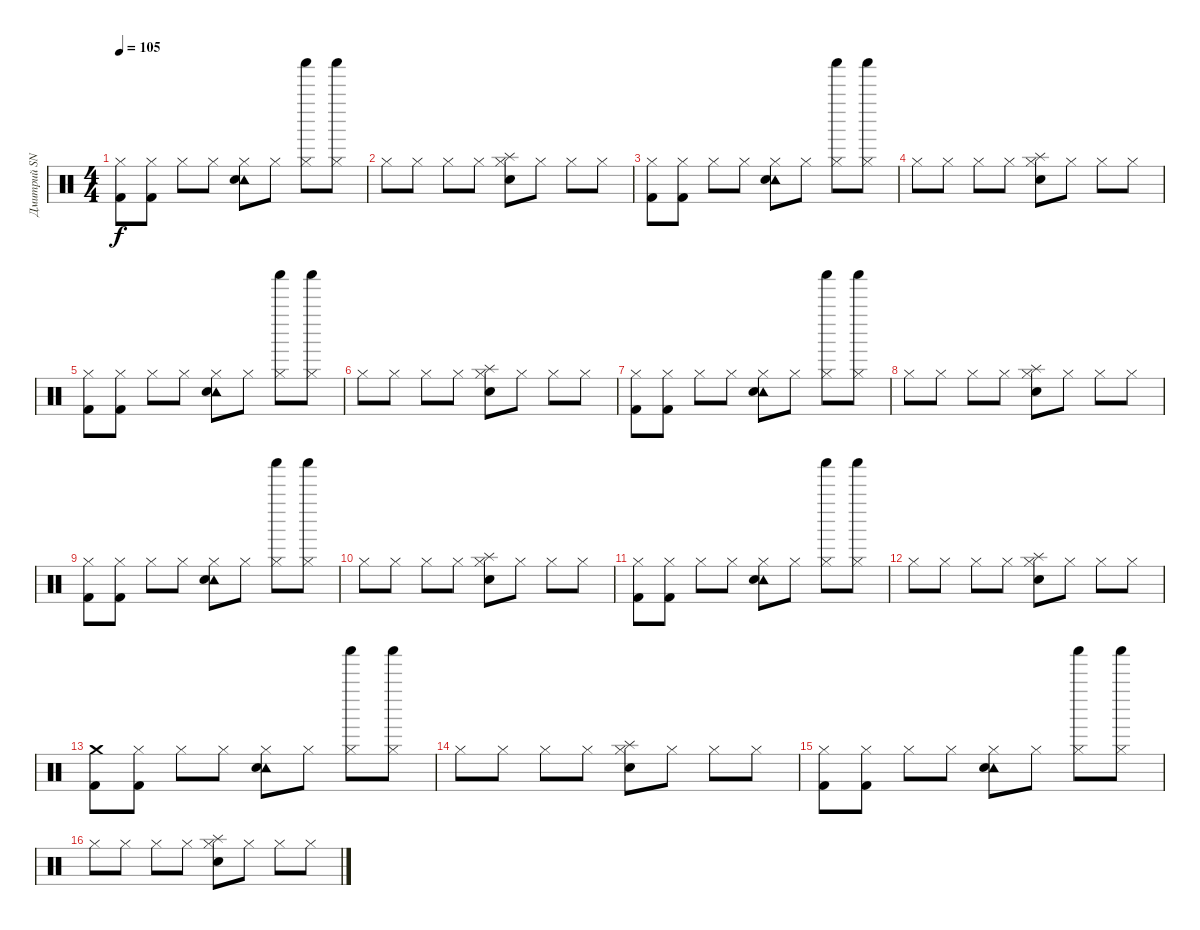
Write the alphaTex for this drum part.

\track ("Дмитрий SNAKE Хакимов" "Дмитрий SN") {instrument percussion}
\staff {score}
\articulation defaults
\ts (4 4)
\tempo 105
\clef neutral
\ks c
("Hi-Hat (closed)" "Kick (hit) 2").8{dy f} ("Hi-Hat (closed)" "Kick (hit) 2").8 "Hi-Hat (closed)".8 "Hi-Hat (closed)".8 ("Hi-Hat (closed)" "Tambourine (hit)" "Metronome (bell)").8 "Hi-Hat (closed)".8 ("Hi-Hat (closed)" "Shaker (hit)").8 ("Hi-Hat (closed)" "Shaker (hit)").8 |
"Hi-Hat (closed)".8 "Hi-Hat (closed)".8 "Hi-Hat (closed)".8 "Hi-Hat (closed)".8 ("Hi-Hat (closed)" "Splash (hit)" "Metronome (bell)").8 "Hi-Hat (closed)".8 "Hi-Hat (closed)".8 "Hi-Hat (closed)".8 |
("Hi-Hat (closed)" "Kick (hit) 2").8 ("Hi-Hat (closed)" "Kick (hit) 2").8 "Hi-Hat (closed)".8 "Hi-Hat (closed)".8 ("Hi-Hat (closed)" "Tambourine (hit)" "Metronome (bell)").8 "Hi-Hat (closed)".8 ("Hi-Hat (closed)" "Shaker (hit)").8 ("Hi-Hat (closed)" "Shaker (hit)").8 |
"Hi-Hat (closed)".8 "Hi-Hat (closed)".8 "Hi-Hat (closed)".8 "Hi-Hat (closed)".8 ("Hi-Hat (closed)" "Splash (hit)" "Metronome (bell)").8 "Hi-Hat (closed)".8 "Hi-Hat (closed)".8 "Hi-Hat (closed)".8 |
("Hi-Hat (closed)" "Kick (hit) 2").8 ("Hi-Hat (closed)" "Kick (hit) 2").8 "Hi-Hat (closed)".8 "Hi-Hat (closed)".8 ("Hi-Hat (closed)" "Tambourine (hit)" "Metronome (bell)").8 "Hi-Hat (closed)".8 ("Hi-Hat (closed)" "Shaker (hit)").8 ("Hi-Hat (closed)" "Shaker (hit)").8 |
"Hi-Hat (closed)".8 "Hi-Hat (closed)".8 "Hi-Hat (closed)".8 "Hi-Hat (closed)".8 ("Hi-Hat (closed)" "Splash (hit)" "Metronome (bell)").8 "Hi-Hat (closed)".8 "Hi-Hat (closed)".8 "Hi-Hat (closed)".8 |
("Hi-Hat (closed)" "Kick (hit) 2").8 ("Hi-Hat (closed)" "Kick (hit) 2").8 "Hi-Hat (closed)".8 "Hi-Hat (closed)".8 ("Hi-Hat (closed)" "Tambourine (hit)" "Metronome (bell)").8 "Hi-Hat (closed)".8 ("Hi-Hat (closed)" "Shaker (hit)").8 ("Hi-Hat (closed)" "Shaker (hit)").8 |
"Hi-Hat (closed)".8 "Hi-Hat (closed)".8 "Hi-Hat (closed)".8 "Hi-Hat (closed)".8 ("Hi-Hat (closed)" "Splash (hit)" "Metronome (bell)").8 "Hi-Hat (closed)".8 "Hi-Hat (closed)".8 "Hi-Hat (closed)".8 |
("Hi-Hat (closed)" "Kick (hit) 2").8 ("Hi-Hat (closed)" "Kick (hit) 2").8 "Hi-Hat (closed)".8 "Hi-Hat (closed)".8 ("Hi-Hat (closed)" "Tambourine (hit)" "Metronome (bell)").8 "Hi-Hat (closed)".8 ("Hi-Hat (closed)" "Shaker (hit)").8 ("Hi-Hat (closed)" "Shaker (hit)").8 |
"Hi-Hat (closed)".8 "Hi-Hat (closed)".8 "Hi-Hat (closed)".8 "Hi-Hat (closed)".8 ("Hi-Hat (closed)" "Splash (hit)" "Metronome (bell)").8 "Hi-Hat (closed)".8 "Hi-Hat (closed)".8 "Hi-Hat (closed)".8 |
("Hi-Hat (closed)" "Kick (hit) 2").8 ("Hi-Hat (closed)" "Kick (hit) 2").8 "Hi-Hat (closed)".8 "Hi-Hat (closed)".8 ("Hi-Hat (closed)" "Tambourine (hit)" "Metronome (bell)").8 "Hi-Hat (closed)".8 ("Hi-Hat (closed)" "Shaker (hit)").8 ("Hi-Hat (closed)" "Shaker (hit)").8 |
"Hi-Hat (closed)".8 "Hi-Hat (closed)".8 "Hi-Hat (closed)".8 "Hi-Hat (closed)".8 ("Hi-Hat (closed)" "Splash (hit)" "Metronome (bell)").8 "Hi-Hat (closed)".8 "Hi-Hat (closed)".8 "Hi-Hat (closed)".8 |
("Crash medium (hit)" "Kick (hit) 2").8 ("Hi-Hat (closed)" "Kick (hit) 2").8 "Hi-Hat (closed)".8 "Hi-Hat (closed)".8 ("Hi-Hat (closed)" "Tambourine (hit)" "Metronome (bell)").8 "Hi-Hat (closed)".8 ("Hi-Hat (closed)" "Shaker (hit)").8 ("Hi-Hat (closed)" "Shaker (hit)").8 |
"Hi-Hat (closed)".8 "Hi-Hat (closed)".8 "Hi-Hat (closed)".8 "Hi-Hat (closed)".8 ("Hi-Hat (closed)" "Splash (hit)" "Metronome (bell)").8 "Hi-Hat (closed)".8 "Hi-Hat (closed)".8 "Hi-Hat (closed)".8 |
("Hi-Hat (closed)" "Kick (hit) 2").8 ("Hi-Hat (closed)" "Kick (hit) 2").8 "Hi-Hat (closed)".8 "Hi-Hat (closed)".8 ("Hi-Hat (closed)" "Tambourine (hit)" "Metronome (bell)").8 "Hi-Hat (closed)".8 ("Hi-Hat (closed)" "Shaker (hit)").8 ("Hi-Hat (closed)" "Shaker (hit)").8 |
"Hi-Hat (closed)".8 "Hi-Hat (closed)".8 "Hi-Hat (closed)".8 "Hi-Hat (closed)".8 ("Hi-Hat (closed)" "Splash (hit)" "Metronome (bell)").8 "Hi-Hat (closed)".8 "Hi-Hat (closed)".8 "Hi-Hat (closed)".8
